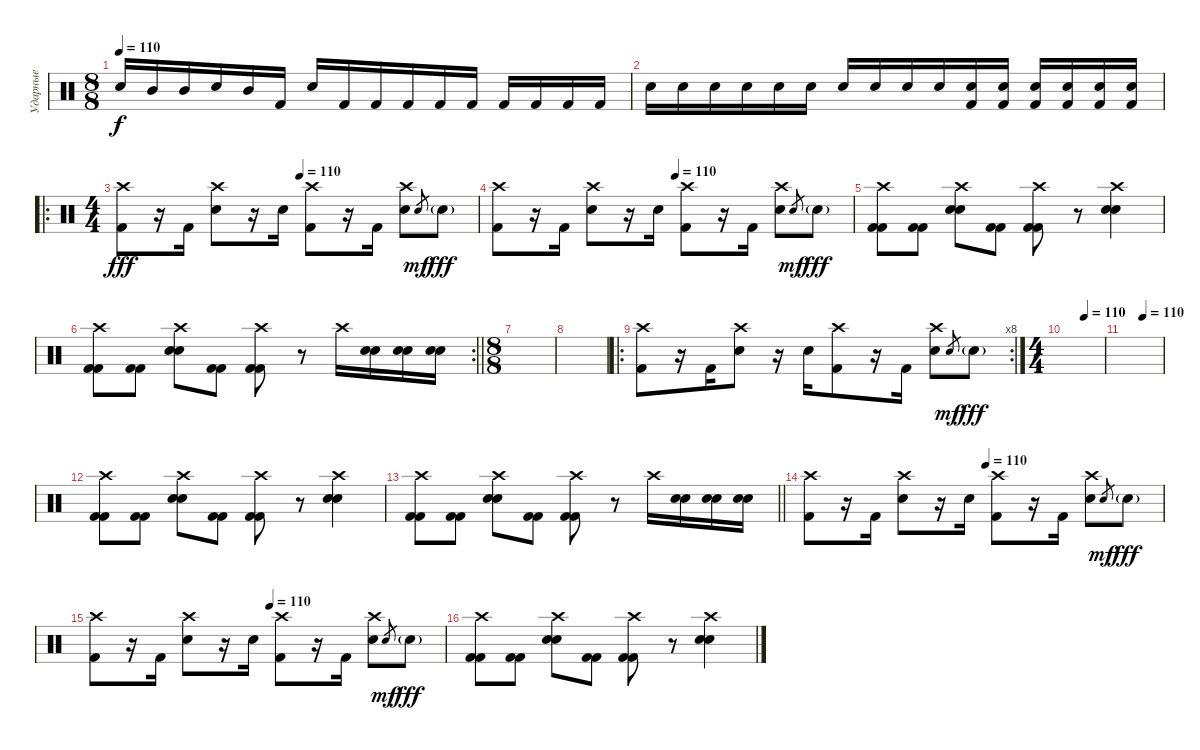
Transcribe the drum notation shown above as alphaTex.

\track ("Ударные" "Ударные") {instrument percussion}
\staff {score}
\articulation defaults
\ts (8 8)
\tempo 110
\clef neutral
\ks c "Electric Snare (hit)".16{dy f} "Mid Tom (hit)".16 "Mid Tom (hit)".16 "Electric Snare (hit)".16 "Mid Tom (hit)".16 "Kick (hit) 2".16 "Electric Snare (hit)".16 "Kick (hit) 2".16 "Kick (hit) 2".16 "Kick (hit) 2".16 "Kick (hit) 2".16 "Kick (hit) 2".16 "Kick (hit) 2".16 "Kick (hit) 2".16 "Kick (hit) 2".16 "Kick (hit) 2".16
|
"Electric Snare (hit)".16 "Electric Snare (hit)".16 "Electric Snare (hit)".16 "Electric Snare (hit)".16 "Electric Snare (hit)".16 "Electric Snare (hit)".16 "Electric Snare (hit)".16 "Electric Snare (hit)".16 "Electric Snare (hit)".16 "Electric Snare (hit)".16 ("Electric Snare (hit)" "Kick (hit) 2").16 ("Electric Snare (hit)" "Kick (hit) 2").16 ("Electric Snare (hit)" "Kick (hit) 2").16 ("Electric Snare (hit)" "Kick (hit) 2").16 ("Electric Snare (hit)" "Kick (hit) 2").16 ("Electric Snare (hit)" "Kick (hit) 2").16 |
\ro
\ts (4 4)
\tempo (110 0.5)
("Crash high (hit)" "Kick (hit) 2").8{dy fff} r.16 "Kick (hit) 2".16 ("Crash high (hit)" "Electric Snare (hit)").8 r.16 "Electric Snare (hit)".16 ("Crash high (hit)" "Kick (hit) 2").8 r.16 "Kick (hit) 2".16 ("Crash high (hit)" "Electric Snare (hit)").8 "Electric Snare (hit)".8{gr dy mf} "Electric Snare (hit)"{g}.8{dy fff} |
\tempo (110 0.5)
("Crash high (hit)" "Kick (hit) 2").8 r.16 "Kick (hit) 2".16 ("Crash high (hit)" "Electric Snare (hit)").8 r.16 "Electric Snare (hit)".16 ("Crash high (hit)" "Kick (hit) 2").8 r.16 "Kick (hit) 2".16 ("Crash high (hit)" "Electric Snare (hit)").8 "Electric Snare (hit)".8{gr dy mf} "Electric Snare (hit)"{g}.8{dy fff} |
("Kick (hit) 2" "Kick (hit) 2" "Crash high (hit)").8 ("Kick (hit) 2" "Kick (hit) 2").8 ("Electric Snare (hit)" "Electric Snare (hit)" "Crash high (hit)").8 ("Kick (hit) 2" "Kick (hit) 2").8 ("Kick (hit) 2" "Kick (hit) 2" "Crash high (hit)").8 r.8 ("Electric Snare (hit)" "Electric Snare (hit)" "Crash high (hit)").4 |
\rc 2
\barLineRight lightlight
("Kick (hit) 2" "Kick (hit) 2" "Crash high (hit)").8 ("Kick (hit) 2" "Kick (hit) 2").8 ("Electric Snare (hit)" "Electric Snare (hit)" "Crash high (hit)").8 ("Kick (hit) 2" "Kick (hit) 2").8 ("Kick (hit) 2" "Kick (hit) 2" "Crash high (hit)").8 r.8 "Crash high (hit)".16 ("Snare (hit) 2" "Electric Snare (hit)").16 ("Snare (hit) 2" "Electric Snare (hit)").16 ("Snare (hit) 2" "Electric Snare (hit)").16 |
\ts (8 8)
|
|
\ro
\rc 8
("Crash high (hit)" "Kick (hit) 2").8 r.16 "Kick (hit) 2".16 ("Crash high (hit)" "Electric Snare (hit)").8 r.16 "Electric Snare (hit)".16 ("Crash high (hit)" "Kick (hit) 2").8 r.16 "Kick (hit) 2".16 ("Crash high (hit)" "Electric Snare (hit)").8 "Electric Snare (hit)".8{gr dy mf} "Electric Snare (hit)"{g}.8{dy fff} |
\ts (4 4)
\tempo (110 0.5)
|
\tempo (110 0.5)
|
("Kick (hit) 2" "Kick (hit) 2" "Crash high (hit)").8 ("Kick (hit) 2" "Kick (hit) 2").8 ("Electric Snare (hit)" "Electric Snare (hit)" "Crash high (hit)").8 ("Kick (hit) 2" "Kick (hit) 2").8 ("Kick (hit) 2" "Kick (hit) 2" "Crash high (hit)").8 r.8 ("Electric Snare (hit)" "Electric Snare (hit)" "Crash high (hit)").4 |
\barLineRight lightlight
("Kick (hit) 2" "Kick (hit) 2" "Crash high (hit)").8 ("Kick (hit) 2" "Kick (hit) 2").8 ("Electric Snare (hit)" "Electric Snare (hit)" "Crash high (hit)").8 ("Kick (hit) 2" "Kick (hit) 2").8 ("Kick (hit) 2" "Kick (hit) 2" "Crash high (hit)").8 r.8 "Crash high (hit)".16 ("Snare (hit) 2" "Electric Snare (hit)").16 ("Snare (hit) 2" "Electric Snare (hit)").16 ("Snare (hit) 2" "Electric Snare (hit)").16 |
\tempo (110 0.5)
("Crash high (hit)" "Kick (hit) 2").8 r.16 "Kick (hit) 2".16 ("Crash high (hit)" "Electric Snare (hit)").8 r.16 "Electric Snare (hit)".16 ("Crash high (hit)" "Kick (hit) 2").8 r.16 "Kick (hit) 2".16 ("Crash high (hit)" "Electric Snare (hit)").8 "Electric Snare (hit)".8{gr dy mf} "Electric Snare (hit)"{g}.8{dy fff} |
\tempo (110 0.5)
("Crash high (hit)" "Kick (hit) 2").8 r.16 "Kick (hit) 2".16 ("Crash high (hit)" "Electric Snare (hit)").8 r.16 "Electric Snare (hit)".16 ("Crash high (hit)" "Kick (hit) 2").8 r.16 "Kick (hit) 2".16 ("Crash high (hit)" "Electric Snare (hit)").8 "Electric Snare (hit)".8{gr dy mf} "Electric Snare (hit)"{g}.8{dy fff} |
("Kick (hit) 2" "Kick (hit) 2" "Crash high (hit)").8 ("Kick (hit) 2" "Kick (hit) 2").8 ("Electric Snare (hit)" "Electric Snare (hit)" "Crash high (hit)").8 ("Kick (hit) 2" "Kick (hit) 2").8 ("Kick (hit) 2" "Kick (hit) 2" "Crash high (hit)").8 r.8 ("Electric Snare (hit)" "Electric Snare (hit)" "Crash high (hit)").4
